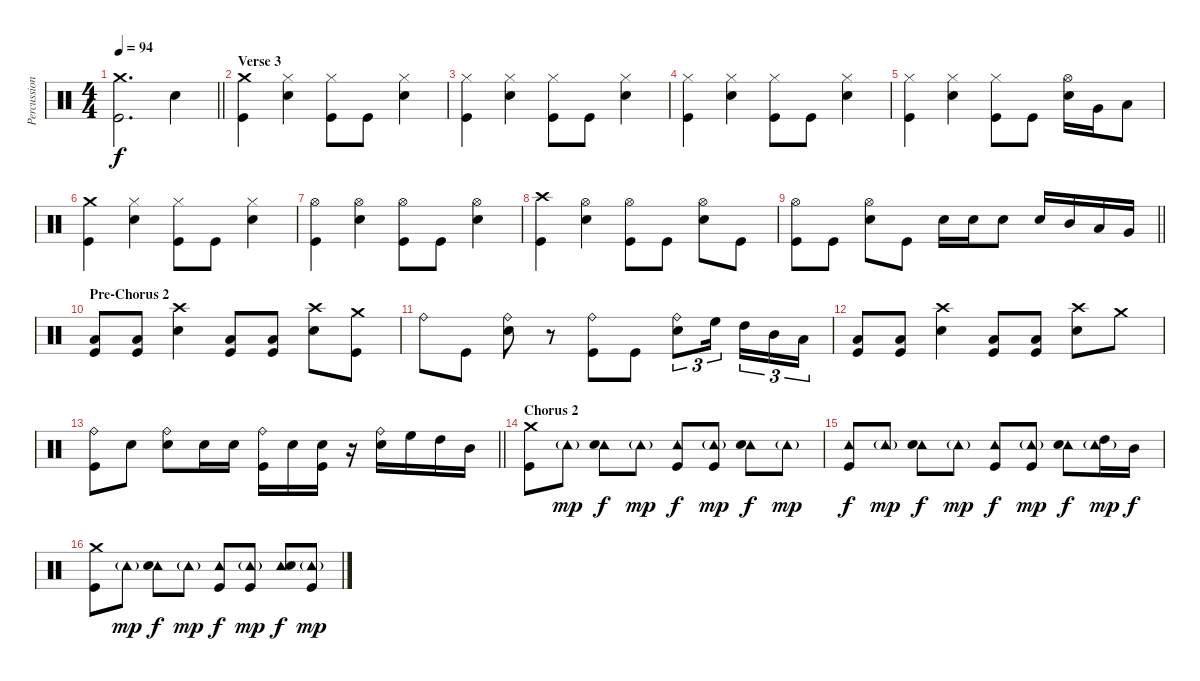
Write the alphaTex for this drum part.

\track ("Percussion" "Percussion") {instrument percussion}
\staff {score}
\articulation defaults
\ts (4 4)
\tempo 94
\clef neutral
\barLineRight lightlight
\ks c
("Crash medium (hit)" "Kick (hit)").2{d dy f} "Snare (hit) 2".4 |
\section ("" "Verse 3")
("Crash medium (hit)" "Kick (hit)").4 ("Hi-Hat (closed)" "Snare (hit) 2").4 ("Hi-Hat (closed)" "Kick (hit)").8 "Kick (hit)".8 ("Hi-Hat (closed)" "Snare (hit) 2").4 |
("Hi-Hat (closed)" "Kick (hit)").4 ("Hi-Hat (closed)" "Snare (hit) 2").4 ("Hi-Hat (closed)" "Kick (hit)").8 "Kick (hit)".8 ("Hi-Hat (closed)" "Snare (hit) 2").4 |
("Hi-Hat (closed)" "Kick (hit)").4 ("Hi-Hat (closed)" "Snare (hit) 2").4 ("Hi-Hat (closed)" "Kick (hit)").8 "Kick (hit)".8 ("Hi-Hat (closed)" "Snare (hit) 2").4 |
("Hi-Hat (closed)" "Kick (hit)").4 ("Hi-Hat (closed)" "Snare (hit) 2").4 ("Hi-Hat (closed)" "Kick (hit)").8 "Kick (hit)".8 ("Hi-Hat (open)" "Snare (hit) 2").16 "Very Low Tom (hit)".16 "Low Floor Tom (hit)".8 |
("Crash medium (hit)" "Kick (hit)").4 ("Hi-Hat (closed)" "Snare (hit) 2").4 ("Hi-Hat (closed)" "Kick (hit)").8 "Kick (hit)".8 ("Hi-Hat (closed)" "Snare (hit) 2").4 |
("Hi-Hat (open)" "Kick (hit)").4 ("Hi-Hat (open)" "Snare (hit) 2").4 ("Hi-Hat (open)" "Kick (hit)").8 "Kick (hit)".8 ("Hi-Hat (open)" "Snare (hit) 2").4 |
("Crash high (hit)" "Kick (hit)").4 ("Hi-Hat (open)" "Snare (hit) 2").4 ("Hi-Hat (open)" "Kick (hit)").8 "Kick (hit)".8 ("Hi-Hat (open)" "Snare (hit) 2").8 "Kick (hit)".8 |
\barLineRight lightlight
("Hi-Hat (open)" "Kick (hit)").8 "Kick (hit)".8 ("Hi-Hat (open)" "Snare (hit) 2").8 "Kick (hit)".8 "Snare (hit) 2".16 "Snare (hit) 2".16 "Snare (hit) 2".8 "Snare (hit) 2".16 "Mid Tom (hit)".16 "Low Tom (hit)".16 "Very Low Tom (hit)".16 |
\section ("" "Pre-Chorus 2")
("Low Tom (hit)" "Kick (hit)").8 ("Low Tom (hit)" "Kick (hit)").8 ("Crash high (hit)" "Snare (hit) 2").4 ("Low Tom (hit)" "Kick (hit)").8 ("Low Tom (hit)" "Kick (hit)").8 ("Crash high (hit)" "Snare (hit) 2").8 ("Crash medium (hit)" "Kick (hit)").8 |
"Ride (bell)".8 "Kick (hit)".8 ("Ride (bell)" "Snare (hit) 2").8 r.8 ("Ride (bell)" "Kick (hit)").8 "Kick (hit)".8 ("Ride (bell)" "Snare (hit) 2").8{tu (3 2)} "High Floor Tom (hit)".16{tu (3 2) beam splitsecondary} "High Tom (hit)".16{tu (3 2)} "Mid Tom (hit)".16{tu (3 2)} "Low Tom (hit)".16{tu (3 2)} |
("Low Tom (hit)" "Kick (hit)").8 ("Low Tom (hit)" "Kick (hit)").8 ("Crash high (hit)" "Snare (hit) 2").4 ("Low Tom (hit)" "Kick (hit)").8 ("Low Tom (hit)" "Kick (hit)").8 ("Crash high (hit)" "Snare (hit) 2").8 "Crash medium (hit)".8 |
\barLineRight lightlight
("Ride (bell)" "Kick (hit)").8 "Snare (hit) 2".8 ("Ride (bell)" "Snare (hit) 2").8 "Snare (hit) 2".16 "Snare (hit) 2".16 ("Ride (bell)" "Kick (hit)").16 "Snare (hit) 2".16 ("Snare (hit) 2" "Kick (hit)").16 r.16 ("Ride (bell)" "Snare (hit) 2").16 "High Floor Tom (hit)".16 "High Tom (hit)".16 "Mid Tom (hit)".16 |
\section ("" "Chorus 2")
("Crash medium (hit)" "Kick (hit)").8 "Tambourine (hit)"{g}.8{dy mp} ("Tambourine (hit)" "Snare (hit) 2").8{dy f} "Tambourine (hit)"{g}.8{dy mp} ("Tambourine (hit)" "Kick (hit)").8{dy f} ("Tambourine (hit)"{g} "Kick (hit)").8{dy mp} ("Tambourine (hit)" "Snare (hit) 2").8{dy f} "Tambourine (hit)"{g}.8{dy mp} |
("Tambourine (hit)" "Kick (hit)").8{dy f} "Tambourine (hit)"{g}.8{dy mp} ("Tambourine (hit)" "Snare (hit) 2").8{dy f} "Tambourine (hit)"{g}.8{dy mp} ("Tambourine (hit)" "Kick (hit)").8{dy f} ("Tambourine (hit)"{g} "Kick (hit)").8{dy mp} ("Tambourine (hit)" "Snare (hit) 2").8{dy f} ("Tambourine (hit)"{g} "High Tom (hit)").16{dy mp} "Mid Tom (hit)".16{dy f} |
("Crash medium (hit)" "Kick (hit)").8 "Tambourine (hit)"{g}.8{dy mp} ("Tambourine (hit)" "Snare (hit) 2").8{dy f} "Tambourine (hit)"{g}.8{dy mp} ("Tambourine (hit)" "Kick (hit)").8{dy f} ("Tambourine (hit)"{g} "Kick (hit)").8{dy mp} ("Tambourine (hit)" "Snare (hit) 2").8{dy f} ("Tambourine (hit)"{g} "Kick (hit)").8{dy mp}
